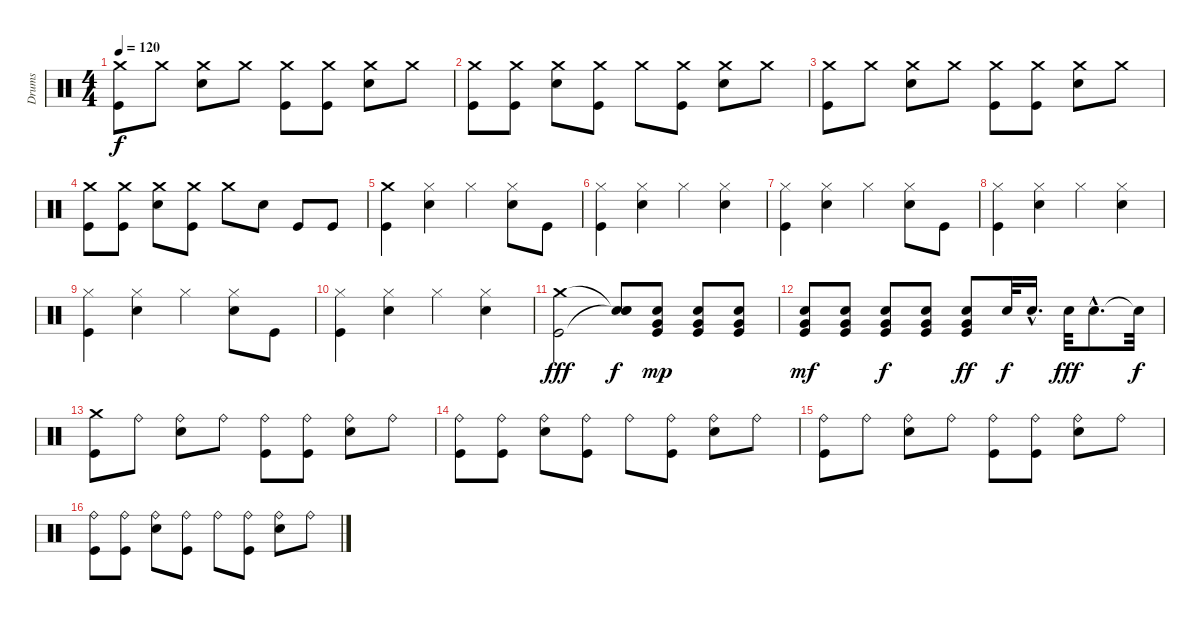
\track ("Drums" "Drums") {instrument percussion}
\staff {score}
\articulation defaults
\ts (4 4)
\tempo 120
\clef neutral
\ks c
("Crash medium (hit)" "Kick (hit)").8{dy f} "Crash medium (hit)".8 ("Crash medium (hit)" "Snare (hit) 2").8 "Crash medium (hit)".8 ("Crash medium (hit)" "Kick (hit)").8 ("Crash medium (hit)" "Kick (hit)").8 ("Crash medium (hit)" "Snare (hit) 2").8 "Crash medium (hit)".8 |
("Crash medium (hit)" "Kick (hit)").8 ("Crash medium (hit)" "Kick (hit)").8 ("Crash medium (hit)" "Snare (hit) 2").8 ("Crash medium (hit)" "Kick (hit)").8 "Crash medium (hit)".8 ("Crash medium (hit)" "Kick (hit)").8 ("Crash medium (hit)" "Snare (hit) 2").8 "Crash medium (hit)".8 |
("Crash medium (hit)" "Kick (hit)").8 "Crash medium (hit)".8 ("Crash medium (hit)" "Snare (hit) 2").8 "Crash medium (hit)".8 ("Crash medium (hit)" "Kick (hit)").8 ("Crash medium (hit)" "Kick (hit)").8 ("Crash medium (hit)" "Snare (hit) 2").8 "Crash medium (hit)".8 |
("Crash medium (hit)" "Kick (hit)").8 ("Crash medium (hit)" "Kick (hit)").8 ("Crash medium (hit)" "Snare (hit) 2").8 ("Crash medium (hit)" "Kick (hit)").8 "Crash medium (hit)".8 "Snare (hit) 2".8 "Kick (hit)".8 "Kick (hit)".8 |
("Crash medium (hit)" "Kick (hit)").4 ("Hi-Hat (closed)" "Snare (hit) 2").4 "Hi-Hat (closed)".4 ("Hi-Hat (closed)" "Snare (hit) 2").8 "Kick (hit)".8 |
("Hi-Hat (closed)" "Kick (hit)").4 ("Hi-Hat (closed)" "Snare (hit) 2").4 "Hi-Hat (closed)".4 ("Hi-Hat (closed)" "Snare (hit) 2").4 |
("Hi-Hat (closed)" "Kick (hit)").4 ("Hi-Hat (closed)" "Snare (hit) 2").4 "Hi-Hat (closed)".4 ("Hi-Hat (closed)" "Snare (hit) 2").8 "Kick (hit)".8 |
("Hi-Hat (closed)" "Kick (hit)").4 ("Hi-Hat (closed)" "Snare (hit) 2").4 "Hi-Hat (closed)".4 ("Hi-Hat (closed)" "Snare (hit) 2").4 |
("Hi-Hat (closed)" "Kick (hit)").4 ("Hi-Hat (closed)" "Snare (hit) 2").4 "Hi-Hat (closed)".4 ("Hi-Hat (closed)" "Snare (hit) 2").8 "Kick (hit)".8 |
("Hi-Hat (closed)" "Kick (hit)").4 ("Hi-Hat (closed)" "Snare (hit) 2").4 "Hi-Hat (closed)".4 ("Hi-Hat (closed)" "Snare (hit) 2").4 |
("Crash medium (hit)" "Kick (hit)").2{dy fff} ("Snare (hit)"{t} "Snare (hit)"{t} "Snare (hit)").8{dy f} ("Snare (hit) 2" "Very Low Tom (hit)" "Kick (hit)").8{dy mp} ("Snare (hit) 2" "Very Low Tom (hit)" "Kick (hit)").8 ("Snare (hit) 2" "Very Low Tom (hit)" "Kick (hit)").8 |
("Snare (hit) 2" "Very Low Tom (hit)" "Kick (hit)").8{dy mf} ("Snare (hit) 2" "Very Low Tom (hit)" "Kick (hit)").8 ("Snare (hit) 2" "Very Low Tom (hit)" "Kick (hit)").8{dy f} ("Snare (hit) 2" "Very Low Tom (hit)" "Kick (hit)").8 ("Snare (hit) 2" "Very Low Tom (hit)" "Kick (hit)").8{dy ff} "Snare (hit) 2".32{dy f} "Snare (hit) 2"{hac}.16{d} "Snare (hit) 2".32{dy fff} "Snare (hit) 2"{hac}.8{d} "Snare (hit)"{t}.32{dy f} |
("Crash medium (hit)" "Kick (hit)").8 "Ride (bell)".8 ("Ride (bell)" "Snare (hit) 2").8 "Ride (bell)".8 ("Ride (bell)" "Kick (hit)").8 ("Ride (bell)" "Kick (hit)").8 ("Ride (bell)" "Snare (hit) 2").8 "Ride (bell)".8 |
("Ride (bell)" "Kick (hit)").8 ("Ride (bell)" "Kick (hit)").8 ("Ride (bell)" "Snare (hit) 2").8 ("Ride (bell)" "Kick (hit)").8 "Ride (bell)".8 ("Ride (bell)" "Kick (hit)").8 ("Ride (bell)" "Snare (hit) 2").8 "Ride (bell)".8 |
("Ride (bell)" "Kick (hit)").8 "Ride (bell)".8 ("Ride (bell)" "Snare (hit) 2").8 "Ride (bell)".8 ("Ride (bell)" "Kick (hit)").8 ("Ride (bell)" "Kick (hit)").8 ("Ride (bell)" "Snare (hit) 2").8 "Ride (bell)".8 |
("Ride (bell)" "Kick (hit)").8 ("Ride (bell)" "Kick (hit)").8 ("Ride (bell)" "Snare (hit) 2").8 ("Ride (bell)" "Kick (hit)").8 "Ride (bell)".8 ("Ride (bell)" "Kick (hit)").8 ("Ride (bell)" "Snare (hit) 2").8 "Ride (bell)".8
